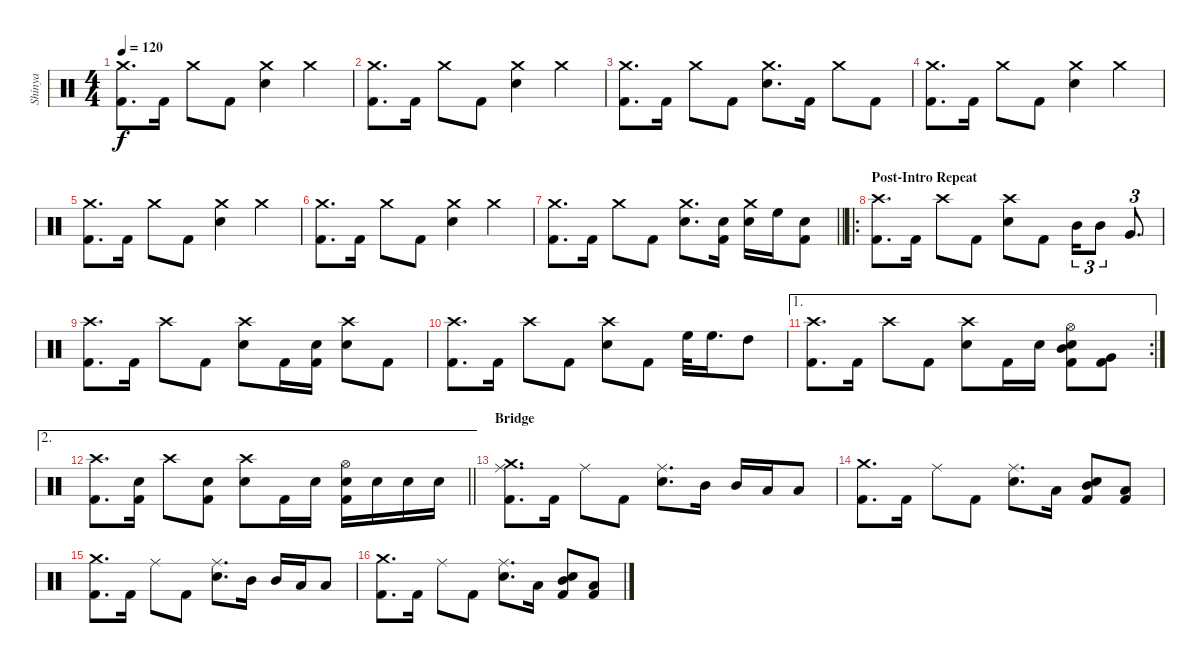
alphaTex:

\track ("Shinya" "Shinya") {instrument percussion}
\staff {score}
\articulation defaults
\ts (4 4)
\tempo 120
\clef neutral
\ks c
("Crash medium (hit)" "Kick (hit) 2").8{d dy f} "Kick (hit) 2".16 "Crash medium (hit)".8 "Kick (hit) 2".8 ("Crash medium (hit)" "Electric Snare (hit)").4 "Crash medium (hit)".4 |
("Crash medium (hit)" "Kick (hit) 2").8{d} "Kick (hit) 2".16 "Crash medium (hit)".8 "Kick (hit) 2".8 ("Crash medium (hit)" "Electric Snare (hit)").4 "Crash medium (hit)".4 |
("Crash medium (hit)" "Kick (hit) 2").8{d} "Kick (hit) 2".16 "Crash medium (hit)".8 "Kick (hit) 2".8 ("Crash medium (hit)" "Electric Snare (hit)").8{d} "Kick (hit) 2".16 "Crash medium (hit)".8 "Kick (hit) 2".8 |
("Crash medium (hit)" "Kick (hit) 2").8{d} "Kick (hit) 2".16 "Crash medium (hit)".8 "Kick (hit) 2".8 ("Crash medium (hit)" "Electric Snare (hit)").4 "Crash medium (hit)".4 |
("Crash medium (hit)" "Kick (hit) 2").8{d} "Kick (hit) 2".16 "Crash medium (hit)".8 "Kick (hit) 2".8 ("Crash medium (hit)" "Electric Snare (hit)").4 "Crash medium (hit)".4 |
("Crash medium (hit)" "Kick (hit) 2").8{d} "Kick (hit) 2".16 "Crash medium (hit)".8 "Kick (hit) 2".8 ("Crash medium (hit)" "Electric Snare (hit)").4 "Crash medium (hit)".4 |
\barLineRight lightlight
("Crash medium (hit)" "Kick (hit) 2").8{d} "Kick (hit) 2".16 "Crash medium (hit)".8 "Kick (hit) 2".8 ("Crash medium (hit)" "Electric Snare (hit)").8{d} ("Snare (hit) 2" "Kick (hit) 2").16 ("Crash medium (hit)" "Snare (hit) 2").16 "High Floor Tom (hit)".16 ("Electric Snare (hit)" "Kick (hit) 2").8 |
\ro
\section ("" "Post-Intro Repeat")
("Crash high (hit)" "Kick (hit) 2").8{d} "Kick (hit) 2".16 "Crash high (hit)".8 "Kick (hit) 2".8 ("Crash high (hit)" "Electric Snare (hit)").8 "Kick (hit) 2".8 "Mid Tom (hit)".16{tu (3 2)} "Mid Tom (hit)".8{tu (3 2)} "Very Low Tom (hit)".8{d tu (3 2)} |
("Crash high (hit)" "Kick (hit) 2").8{d} "Kick (hit) 2".16 "Crash high (hit)".8 "Kick (hit) 2".8 ("Crash high (hit)" "Electric Snare (hit)").8 "Kick (hit) 2".16 ("Snare (hit) 2" "Kick (hit) 2").16 ("Crash high (hit)" "Electric Snare (hit)").8 "Kick (hit) 2".8 |
("Crash high (hit)" "Kick (hit) 2").8{d} "Kick (hit) 2".16 "Crash high (hit)".8 "Kick (hit) 2".8 ("Crash high (hit)" "Electric Snare (hit)").8 "Kick (hit) 2".8 "High Floor Tom (hit)".32 "High Floor Tom (hit)".16{d} "High Tom (hit)".8 |
\ae 1
\rc 2
("Crash high (hit)" "Kick (hit) 2").8{d} "Kick (hit) 2".16 "Crash high (hit)".8 "Kick (hit) 2".8 ("Crash high (hit)" "Electric Snare (hit)").8 "Kick (hit) 2".16 "Electric Snare (hit)".16 ("Hi-Hat (open)" "Mid Tom (hit)" "Electric Snare (hit)" "Kick (hit) 2").8 ("Very Low Tom (hit)" "Kick (hit) 2").8 |
\ae 2
\barLineRight lightlight
("Crash high (hit)" "Kick (hit) 2").8{d} ("Snare (hit) 2" "Kick (hit) 2").16 "Crash high (hit)".8 ("Electric Snare (hit)" "Kick (hit) 2").8 ("Crash high (hit)" "Electric Snare (hit)").8 "Kick (hit) 2".16 "Electric Snare (hit)".16 ("Hi-Hat (open)" "Electric Snare (hit)" "Kick (hit) 2").16 "Electric Snare (hit)".16 "Electric Snare (hit)".16 "Electric Snare (hit)".16 |
\section ("" "Bridge")
("Ride (middle)" "Crash medium (hit)" "Kick (hit) 2").8{d} "Kick (hit) 2".16 "Ride (middle)".8 "Kick (hit) 2".8 ("Ride (middle)" "Electric Snare (hit)").8{d} "Mid Tom (hit)".16 "Mid Tom (hit)".16 "Low Tom (hit)".16 "Low Floor Tom (hit)".8 |
("Crash medium (hit)" "Kick (hit) 2").8{d} "Kick (hit) 2".16 "Ride (middle)".8 "Kick (hit) 2".8 ("Ride (middle)" "Electric Snare (hit)").8{d} "Low Tom (hit)".16 ("Electric Snare (hit)" "Mid Tom (hit)" "Kick (hit) 2").8 ("Low Floor Tom (hit)" "Kick (hit) 2").8 |
("Crash medium (hit)" "Kick (hit) 2").8{d} "Kick (hit) 2".16 "Ride (middle)".8 "Kick (hit) 2".8 ("Ride (middle)" "Electric Snare (hit)").8{d} "Mid Tom (hit)".16 "Mid Tom (hit)".16 "Low Tom (hit)".16 "Low Floor Tom (hit)".8 |
("Crash medium (hit)" "Kick (hit) 2").8{d} "Kick (hit) 2".16 "Ride (middle)".8 "Kick (hit) 2".8 ("Ride (middle)" "Electric Snare (hit)").8{d} "Low Tom (hit)".16 ("Electric Snare (hit)" "Mid Tom (hit)" "Kick (hit) 2").8 ("Low Floor Tom (hit)" "Kick (hit) 2").8
